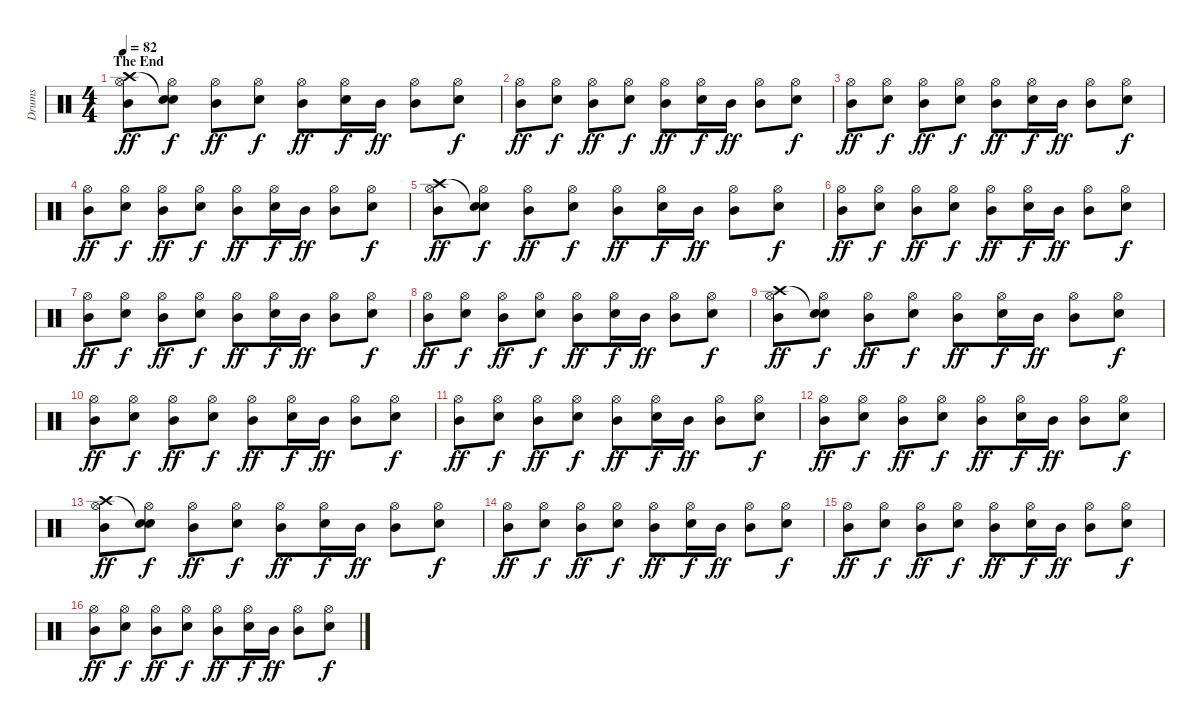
\track ("Drums" "Drums") {instrument percussion}
\staff {score}
\articulation defaults
\ts (4 4)
\section ("" "The End")
\tempo 82
\clef neutral
\ks c
("Hi-Hat (open)" "Crash high (hit)" "Mid Tom (hit)").8{dy ff} ("Hi-Hat (open)" "Snare (hit)"{t} "Electric Snare (hit)").8{dy f} ("Hi-Hat (open)" "Mid Tom (hit)").8{dy ff} ("Hi-Hat (open)" "Electric Snare (hit)").8{dy f} ("Hi-Hat (open)" "Mid Tom (hit)").8{dy ff} ("Hi-Hat (open)" "Electric Snare (hit)").16{dy f} "Mid Tom (hit)".16{dy ff} ("Hi-Hat (open)" "Mid Tom (hit)").8 ("Hi-Hat (open)" "Electric Snare (hit)").8{dy f} |
("Hi-Hat (open)" "Mid Tom (hit)").8{dy ff} ("Hi-Hat (open)" "Electric Snare (hit)").8{dy f} ("Hi-Hat (open)" "Mid Tom (hit)").8{dy ff} ("Hi-Hat (open)" "Electric Snare (hit)").8{dy f} ("Hi-Hat (open)" "Mid Tom (hit)").8{dy ff} ("Hi-Hat (open)" "Electric Snare (hit)").16{dy f} "Mid Tom (hit)".16{dy ff} ("Hi-Hat (open)" "Mid Tom (hit)").8 ("Hi-Hat (open)" "Electric Snare (hit)").8{dy f} |
("Hi-Hat (open)" "Mid Tom (hit)").8{dy ff} ("Hi-Hat (open)" "Electric Snare (hit)").8{dy f} ("Hi-Hat (open)" "Mid Tom (hit)").8{dy ff} ("Hi-Hat (open)" "Electric Snare (hit)").8{dy f} ("Hi-Hat (open)" "Mid Tom (hit)").8{dy ff} ("Hi-Hat (open)" "Electric Snare (hit)").16{dy f} "Mid Tom (hit)".16{dy ff} ("Hi-Hat (open)" "Mid Tom (hit)").8 ("Hi-Hat (open)" "Electric Snare (hit)").8{dy f} |
("Hi-Hat (open)" "Mid Tom (hit)").8{dy ff} ("Hi-Hat (open)" "Electric Snare (hit)").8{dy f} ("Hi-Hat (open)" "Mid Tom (hit)").8{dy ff} ("Hi-Hat (open)" "Electric Snare (hit)").8{dy f} ("Hi-Hat (open)" "Mid Tom (hit)").8{dy ff} ("Hi-Hat (open)" "Electric Snare (hit)").16{dy f} "Mid Tom (hit)".16{dy ff} ("Hi-Hat (open)" "Mid Tom (hit)").8 ("Hi-Hat (open)" "Electric Snare (hit)").8{dy f} |
("Hi-Hat (open)" "Crash high (hit)" "Mid Tom (hit)").8{dy ff} ("Hi-Hat (open)" "Snare (hit)"{t} "Electric Snare (hit)").8{dy f} ("Hi-Hat (open)" "Mid Tom (hit)").8{dy ff} ("Hi-Hat (open)" "Electric Snare (hit)").8{dy f} ("Hi-Hat (open)" "Mid Tom (hit)").8{dy ff} ("Hi-Hat (open)" "Electric Snare (hit)").16{dy f} "Mid Tom (hit)".16{dy ff} ("Hi-Hat (open)" "Mid Tom (hit)").8 ("Hi-Hat (open)" "Electric Snare (hit)").8{dy f} |
("Hi-Hat (open)" "Mid Tom (hit)").8{dy ff} ("Hi-Hat (open)" "Electric Snare (hit)").8{dy f} ("Hi-Hat (open)" "Mid Tom (hit)").8{dy ff} ("Hi-Hat (open)" "Electric Snare (hit)").8{dy f} ("Hi-Hat (open)" "Mid Tom (hit)").8{dy ff} ("Hi-Hat (open)" "Electric Snare (hit)").16{dy f} "Mid Tom (hit)".16{dy ff} ("Hi-Hat (open)" "Mid Tom (hit)").8 ("Hi-Hat (open)" "Electric Snare (hit)").8{dy f} |
("Hi-Hat (open)" "Mid Tom (hit)").8{dy ff} ("Hi-Hat (open)" "Electric Snare (hit)").8{dy f} ("Hi-Hat (open)" "Mid Tom (hit)").8{dy ff} ("Hi-Hat (open)" "Electric Snare (hit)").8{dy f} ("Hi-Hat (open)" "Mid Tom (hit)").8{dy ff} ("Hi-Hat (open)" "Electric Snare (hit)").16{dy f} "Mid Tom (hit)".16{dy ff} ("Hi-Hat (open)" "Mid Tom (hit)").8 ("Hi-Hat (open)" "Electric Snare (hit)").8{dy f} |
("Hi-Hat (open)" "Mid Tom (hit)").8{dy ff} ("Hi-Hat (open)" "Electric Snare (hit)").8{dy f} ("Hi-Hat (open)" "Mid Tom (hit)").8{dy ff} ("Hi-Hat (open)" "Electric Snare (hit)").8{dy f} ("Hi-Hat (open)" "Mid Tom (hit)").8{dy ff} ("Hi-Hat (open)" "Electric Snare (hit)").16{dy f} "Mid Tom (hit)".16{dy ff} ("Hi-Hat (open)" "Mid Tom (hit)").8 ("Hi-Hat (open)" "Electric Snare (hit)").8{dy f} |
("Hi-Hat (open)" "Crash high (hit)" "Mid Tom (hit)").8{dy ff} ("Hi-Hat (open)" "Snare (hit)"{t} "Electric Snare (hit)").8{dy f} ("Hi-Hat (open)" "Mid Tom (hit)").8{dy ff} ("Hi-Hat (open)" "Electric Snare (hit)").8{dy f} ("Hi-Hat (open)" "Mid Tom (hit)").8{dy ff} ("Hi-Hat (open)" "Electric Snare (hit)").16{dy f} "Mid Tom (hit)".16{dy ff} ("Hi-Hat (open)" "Mid Tom (hit)").8 ("Hi-Hat (open)" "Electric Snare (hit)").8{dy f} |
("Hi-Hat (open)" "Mid Tom (hit)").8{dy ff} ("Hi-Hat (open)" "Electric Snare (hit)").8{dy f} ("Hi-Hat (open)" "Mid Tom (hit)").8{dy ff} ("Hi-Hat (open)" "Electric Snare (hit)").8{dy f} ("Hi-Hat (open)" "Mid Tom (hit)").8{dy ff} ("Hi-Hat (open)" "Electric Snare (hit)").16{dy f} "Mid Tom (hit)".16{dy ff} ("Hi-Hat (open)" "Mid Tom (hit)").8 ("Hi-Hat (open)" "Electric Snare (hit)").8{dy f} |
("Hi-Hat (open)" "Mid Tom (hit)").8{dy ff} ("Hi-Hat (open)" "Electric Snare (hit)").8{dy f} ("Hi-Hat (open)" "Mid Tom (hit)").8{dy ff} ("Hi-Hat (open)" "Electric Snare (hit)").8{dy f} ("Hi-Hat (open)" "Mid Tom (hit)").8{dy ff} ("Hi-Hat (open)" "Electric Snare (hit)").16{dy f} "Mid Tom (hit)".16{dy ff} ("Hi-Hat (open)" "Mid Tom (hit)").8 ("Hi-Hat (open)" "Electric Snare (hit)").8{dy f} |
("Hi-Hat (open)" "Mid Tom (hit)").8{dy ff} ("Hi-Hat (open)" "Electric Snare (hit)").8{dy f} ("Hi-Hat (open)" "Mid Tom (hit)").8{dy ff} ("Hi-Hat (open)" "Electric Snare (hit)").8{dy f} ("Hi-Hat (open)" "Mid Tom (hit)").8{dy ff} ("Hi-Hat (open)" "Electric Snare (hit)").16{dy f} "Mid Tom (hit)".16{dy ff} ("Hi-Hat (open)" "Mid Tom (hit)").8 ("Hi-Hat (open)" "Electric Snare (hit)").8{dy f} |
("Hi-Hat (open)" "Crash high (hit)" "Mid Tom (hit)").8{dy ff} ("Hi-Hat (open)" "Snare (hit)"{t} "Electric Snare (hit)").8{dy f} ("Hi-Hat (open)" "Mid Tom (hit)").8{dy ff} ("Hi-Hat (open)" "Electric Snare (hit)").8{dy f} ("Hi-Hat (open)" "Mid Tom (hit)").8{dy ff} ("Hi-Hat (open)" "Electric Snare (hit)").16{dy f} "Mid Tom (hit)".16{dy ff} ("Hi-Hat (open)" "Mid Tom (hit)").8 ("Hi-Hat (open)" "Electric Snare (hit)").8{dy f} |
("Hi-Hat (open)" "Mid Tom (hit)").8{dy ff} ("Hi-Hat (open)" "Electric Snare (hit)").8{dy f} ("Hi-Hat (open)" "Mid Tom (hit)").8{dy ff} ("Hi-Hat (open)" "Electric Snare (hit)").8{dy f} ("Hi-Hat (open)" "Mid Tom (hit)").8{dy ff} ("Hi-Hat (open)" "Electric Snare (hit)").16{dy f} "Mid Tom (hit)".16{dy ff} ("Hi-Hat (open)" "Mid Tom (hit)").8 ("Hi-Hat (open)" "Electric Snare (hit)").8{dy f} |
("Hi-Hat (open)" "Mid Tom (hit)").8{dy ff} ("Hi-Hat (open)" "Electric Snare (hit)").8{dy f} ("Hi-Hat (open)" "Mid Tom (hit)").8{dy ff} ("Hi-Hat (open)" "Electric Snare (hit)").8{dy f} ("Hi-Hat (open)" "Mid Tom (hit)").8{dy ff} ("Hi-Hat (open)" "Electric Snare (hit)").16{dy f} "Mid Tom (hit)".16{dy ff} ("Hi-Hat (open)" "Mid Tom (hit)").8 ("Hi-Hat (open)" "Electric Snare (hit)").8{dy f} |
("Hi-Hat (open)" "Mid Tom (hit)").8{dy ff} ("Hi-Hat (open)" "Electric Snare (hit)").8{dy f} ("Hi-Hat (open)" "Mid Tom (hit)").8{dy ff} ("Hi-Hat (open)" "Electric Snare (hit)").8{dy f} ("Hi-Hat (open)" "Mid Tom (hit)").8{dy ff} ("Hi-Hat (open)" "Electric Snare (hit)").16{dy f} "Mid Tom (hit)".16{dy ff} ("Hi-Hat (open)" "Mid Tom (hit)").8 ("Hi-Hat (open)" "Electric Snare (hit)").8{dy f}
